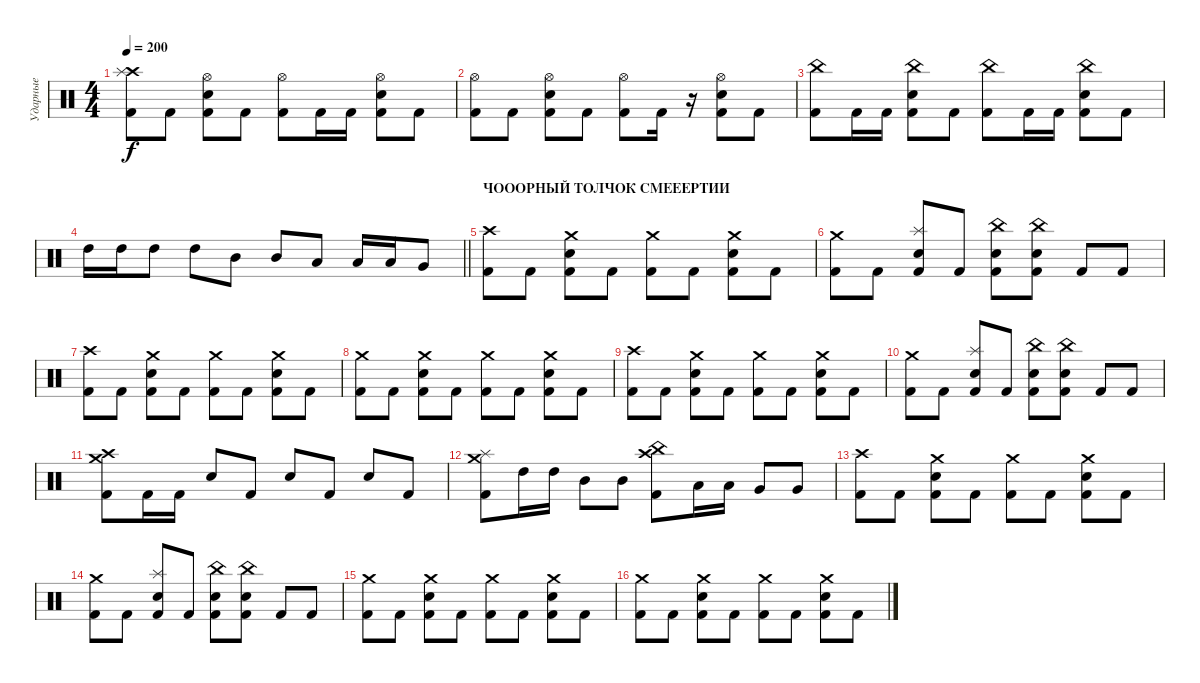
\track ("Ударные" "Ударные") {instrument percussion}
\staff {score}
\articulation defaults
\ts (4 4)
\tempo 200
\clef neutral
\ks c
("Kick (hit) 2" "Crash high (hit)" "Splash (hit)").8{dy f} "Kick (hit) 2".8 ("Kick (hit) 2" "Electric Snare (hit)" "Hi-Hat (open)").8 "Kick (hit) 2".8 ("Kick (hit) 2" "Hi-Hat (open)").8 "Kick (hit) 2".16 "Kick (hit) 2".16 ("Kick (hit) 2" "Electric Snare (hit)" "Hi-Hat (open)").8 "Kick (hit) 2".8 |
("Kick (hit) 2" "Hi-Hat (open)").8 "Kick (hit) 2".8 ("Kick (hit) 2" "Electric Snare (hit)" "Hi-Hat (open)").8 "Kick (hit) 2".8 ("Kick (hit) 2" "Hi-Hat (open)").8 "Kick (hit) 2".16 r.16 ("Kick (hit) 2" "Electric Snare (hit)" "Hi-Hat (open)").8 "Kick (hit) 2".8 |
("Kick (hit) 2" "China (hit)").8 "Kick (hit) 2".16 "Kick (hit) 2".16 ("Kick (hit) 2" "Electric Snare (hit)" "China (hit)").8 "Kick (hit) 2".8 ("Kick (hit) 2" "China (hit)").8 "Kick (hit) 2".16 "Kick (hit) 2".16 ("Kick (hit) 2" "Electric Snare (hit)" "China (hit)").8 "Kick (hit) 2".8 |
\barLineRight lightlight "High Tom (hit)".16 "High Tom (hit)".16 "High Tom (hit)".8 "High Tom (hit)".8 "Mid Tom (hit)".8 "Mid Tom (hit)".8 "Low Tom (hit)".8 "Low Tom (hit)".16 "Low Tom (hit)".16 "Very Low Tom (hit)".8
|
\section ("" "ЧОООРНЫЙ ТОЛЧОК СМЕЕЕРТИИ")
("Kick (hit) 2" "Crash high (hit)").8 "Kick (hit) 2".8 ("Kick (hit) 2" "Electric Snare (hit)" "Crash medium (hit)").8 "Kick (hit) 2".8 ("Kick (hit) 2" "Crash medium (hit)").8 "Kick (hit) 2".8 ("Kick (hit) 2" "Electric Snare (hit)" "Crash medium (hit)").8 "Kick (hit) 2".8 |
("Kick (hit) 2" "Crash medium (hit)").8 "Kick (hit) 2".8 ("Kick (hit) 2" "Electric Snare (hit)" "Splash (hit)").8 "Kick (hit) 2".8 ("Kick (hit) 2" "Electric Snare (hit)" "China (hit)").8 ("Kick (hit) 2" "Electric Snare (hit)" "China (hit)").8 "Kick (hit) 2".8 "Kick (hit) 2".8 |
("Kick (hit) 2" "Crash high (hit)").8 "Kick (hit) 2".8 ("Kick (hit) 2" "Electric Snare (hit)" "Crash medium (hit)").8 "Kick (hit) 2".8 ("Kick (hit) 2" "Crash medium (hit)").8 "Kick (hit) 2".8 ("Kick (hit) 2" "Electric Snare (hit)" "Crash medium (hit)").8 "Kick (hit) 2".8 |
("Kick (hit) 2" "Crash medium (hit)").8 "Kick (hit) 2".8 ("Kick (hit) 2" "Electric Snare (hit)" "Crash medium (hit)").8 "Kick (hit) 2".8 ("Kick (hit) 2" "Crash medium (hit)").8 "Kick (hit) 2".8 ("Kick (hit) 2" "Electric Snare (hit)" "Crash medium (hit)").8 "Kick (hit) 2".8 |
("Kick (hit) 2" "Crash high (hit)").8 "Kick (hit) 2".8 ("Kick (hit) 2" "Electric Snare (hit)" "Crash medium (hit)").8 "Kick (hit) 2".8 ("Kick (hit) 2" "Crash medium (hit)").8 "Kick (hit) 2".8 ("Kick (hit) 2" "Electric Snare (hit)" "Crash medium (hit)").8 "Kick (hit) 2".8 |
("Kick (hit) 2" "Crash medium (hit)").8 "Kick (hit) 2".8 ("Kick (hit) 2" "Electric Snare (hit)" "Splash (hit)").8 "Kick (hit) 2".8 ("Kick (hit) 2" "Electric Snare (hit)" "China (hit)").8 ("Kick (hit) 2" "Electric Snare (hit)" "China (hit)").8 "Kick (hit) 2".8 "Kick (hit) 2".8 |
("Kick (hit) 2" "Crash high (hit)" "Crash medium (hit)").8 "Kick (hit) 2".16 "Kick (hit) 2".16 "Electric Snare (hit)".8 "Kick (hit) 2".8 "Electric Snare (hit)".8 "Kick (hit) 2".8 "Electric Snare (hit)".8 "Kick (hit) 2".8 |
("Kick (hit) 2" "Splash (hit)" "Crash medium (hit)").8 "High Tom (hit)".16 "High Tom (hit)".16 "Mid Tom (hit)".8 "Mid Tom (hit)".8 ("Kick (hit) 2" "China (hit)" "Crash high (hit)").8 "Low Tom (hit)".16 "Low Tom (hit)".16 "Very Low Tom (hit)".8 "Very Low Tom (hit)".8 |
("Kick (hit) 2" "Crash high (hit)").8 "Kick (hit) 2".8 ("Kick (hit) 2" "Electric Snare (hit)" "Crash medium (hit)").8 "Kick (hit) 2".8 ("Kick (hit) 2" "Crash medium (hit)").8 "Kick (hit) 2".8 ("Kick (hit) 2" "Electric Snare (hit)" "Crash medium (hit)").8 "Kick (hit) 2".8 |
("Kick (hit) 2" "Crash medium (hit)").8 "Kick (hit) 2".8 ("Kick (hit) 2" "Electric Snare (hit)" "Splash (hit)").8 "Kick (hit) 2".8 ("Kick (hit) 2" "Electric Snare (hit)" "China (hit)").8 ("Kick (hit) 2" "Electric Snare (hit)" "China (hit)").8 "Kick (hit) 2".8 "Kick (hit) 2".8 |
("Kick (hit) 2" "Crash medium (hit)").8 "Kick (hit) 2".8 ("Kick (hit) 2" "Electric Snare (hit)" "Crash medium (hit)").8 "Kick (hit) 2".8 ("Kick (hit) 2" "Crash medium (hit)").8 "Kick (hit) 2".8 ("Kick (hit) 2" "Electric Snare (hit)" "Crash medium (hit)").8 "Kick (hit) 2".8 |
("Kick (hit) 2" "Crash medium (hit)").8 "Kick (hit) 2".8 ("Kick (hit) 2" "Electric Snare (hit)" "Crash medium (hit)").8 "Kick (hit) 2".8 ("Kick (hit) 2" "Crash medium (hit)").8 "Kick (hit) 2".8 ("Kick (hit) 2" "Electric Snare (hit)" "Crash medium (hit)").8 "Kick (hit) 2".8
